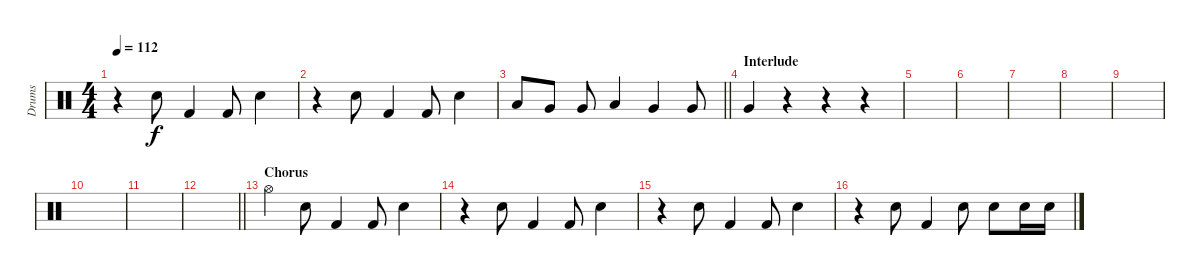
\track ("Drums" "Drums") {instrument percussion}
\staff {score}
\articulation defaults
\ts (4 4)
\tempo 112
\clef neutral
\ks c
r.4{dy f} "Electric Snare (hit)".8 "Kick (hit) 2".4 "Kick (hit) 2".8 "Electric Snare (hit)".4 |
r.4 "Electric Snare (hit)".8 "Kick (hit) 2".4 "Kick (hit) 2".8 "Electric Snare (hit)".4 |
\barLineRight lightlight "Low Tom (hit)".8 "Very Low Tom (hit)".8 "Very Low Tom (hit)".8 "Low Floor Tom (hit)".4 "Very Low Tom (hit)".4 "Very Low Tom (hit)".8
|
\section ("" "Interlude")
"Very Low Tom (hit)".4 r.4 r.4 r.4 |
|
|
|
|
|
|
|
\barLineRight lightlight
|
\section ("" "Chorus")
"Hi-Hat (open)".4 "Electric Snare (hit)".8 "Kick (hit) 2".4 "Kick (hit) 2".8 "Electric Snare (hit)".4 |
r.4 "Electric Snare (hit)".8 "Kick (hit) 2".4 "Kick (hit) 2".8 "Electric Snare (hit)".4 |
r.4 "Electric Snare (hit)".8 "Kick (hit) 2".4 "Kick (hit) 2".8 "Electric Snare (hit)".4 |
r.4 "Electric Snare (hit)".8 "Kick (hit) 2".4 "Electric Snare (hit)".8 "Electric Snare (hit)".8 "Electric Snare (hit)".16 "Electric Snare (hit)".16
